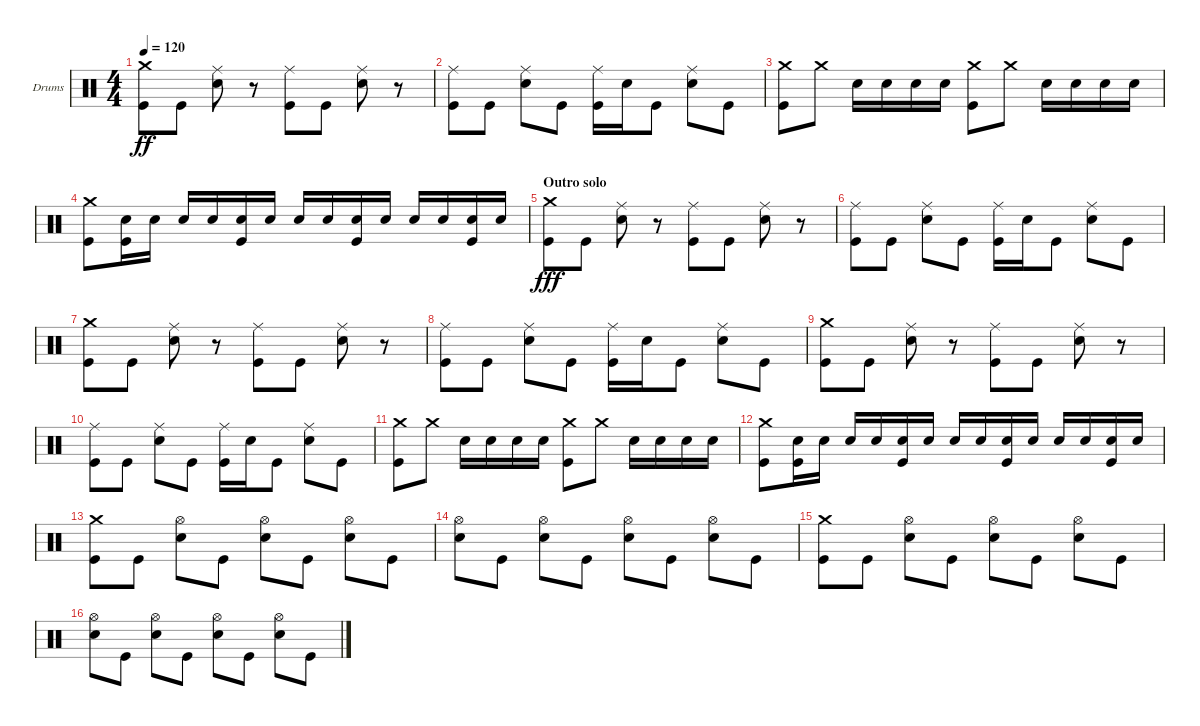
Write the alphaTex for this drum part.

\bracketExtendMode groupsimilarinstruments
\firstSystemTrackNameOrientation horizontal
\otherSystemsTrackNameOrientation horizontal
\track ("Drums" "Drums") {instrument percussion}
\staff {score}
\articulation defaults
\ts (4 4)
\tempo 120
\clef neutral
\ks c
("Kick (hit)" "Crash medium (hit)").8{dy ff} "Kick (hit)".8 ("Snare (hit) 2" "Ride (middle)").8 r.8 ("Kick (hit)" "Ride (middle)").8 "Kick (hit)".8 ("Snare (hit) 2" "Ride (middle)").8 r.8 |
("Kick (hit)" "Ride (middle)").8 "Kick (hit)".8 ("Snare (hit) 2" "Ride (middle)").8 "Kick (hit)".8 ("Kick (hit)" "Ride (middle)").16 "Snare (hit) 2".16 "Kick (hit)".8 ("Snare (hit) 2" "Ride (middle)").8 "Kick (hit)".8 |
("Kick (hit)" "Crash medium (hit)").8 "Crash medium (hit)".8 "Snare (hit) 2".16 "Snare (hit) 2".16 "Snare (hit) 2".16 "Snare (hit) 2".16 ("Kick (hit)" "Crash medium (hit)").8 "Crash medium (hit)".8 "Snare (hit) 2".16 "Snare (hit) 2".16 "Snare (hit) 2".16 "Snare (hit) 2".16 |
("Kick (hit)" "Crash medium (hit)").8 ("Kick (hit)" "Snare (hit) 2").16 "Snare (hit) 2".16 "Snare (hit) 2".16 "Snare (hit) 2".16 ("Kick (hit)" "Snare (hit) 2").16 "Snare (hit) 2".16 "Snare (hit) 2".16 "Snare (hit) 2".16 ("Kick (hit)" "Snare (hit) 2").16 "Snare (hit) 2".16 "Snare (hit) 2".16 "Snare (hit) 2".16 ("Kick (hit)" "Snare (hit) 2").16 "Snare (hit) 2".16 |
\section ("" "Outro solo")
("Kick (hit)" "Crash medium (hit)").8{dy fff} "Kick (hit)".8 ("Snare (hit) 2" "Ride (middle)").8 r.8 ("Kick (hit)" "Ride (middle)").8 "Kick (hit)".8 ("Snare (hit) 2" "Ride (middle)").8 r.8 |
("Kick (hit)" "Ride (middle)").8 "Kick (hit)".8 ("Snare (hit) 2" "Ride (middle)").8 "Kick (hit)".8 ("Kick (hit)" "Ride (middle)").16 "Snare (hit) 2".16 "Kick (hit)".8 ("Snare (hit) 2" "Ride (middle)").8 "Kick (hit)".8 |
("Kick (hit)" "Crash medium (hit)").8 "Kick (hit)".8 ("Snare (hit) 2" "Ride (middle)").8 r.8 ("Kick (hit)" "Ride (middle)").8 "Kick (hit)".8 ("Snare (hit) 2" "Ride (middle)").8 r.8 |
("Kick (hit)" "Ride (middle)").8 "Kick (hit)".8 ("Snare (hit) 2" "Ride (middle)").8 "Kick (hit)".8 ("Kick (hit)" "Ride (middle)").16 "Snare (hit) 2".16 "Kick (hit)".8 ("Snare (hit) 2" "Ride (middle)").8 "Kick (hit)".8 |
("Kick (hit)" "Crash medium (hit)").8 "Kick (hit)".8 ("Snare (hit) 2" "Ride (middle)").8 r.8 ("Kick (hit)" "Ride (middle)").8 "Kick (hit)".8 ("Snare (hit) 2" "Ride (middle)").8 r.8 |
("Kick (hit)" "Ride (middle)").8 "Kick (hit)".8 ("Snare (hit) 2" "Ride (middle)").8 "Kick (hit)".8 ("Kick (hit)" "Ride (middle)").16 "Snare (hit) 2".16 "Kick (hit)".8 ("Snare (hit) 2" "Ride (middle)").8 "Kick (hit)".8 |
("Kick (hit)" "Crash medium (hit)").8 "Crash medium (hit)".8 "Snare (hit) 2".16 "Snare (hit) 2".16 "Snare (hit) 2".16 "Snare (hit) 2".16 ("Kick (hit)" "Crash medium (hit)").8 "Crash medium (hit)".8 "Snare (hit) 2".16 "Snare (hit) 2".16 "Snare (hit) 2".16 "Snare (hit) 2".16 |
("Kick (hit)" "Crash medium (hit)").8 ("Kick (hit)" "Snare (hit) 2").16 "Snare (hit) 2".16 "Snare (hit) 2".16 "Snare (hit) 2".16 ("Kick (hit)" "Snare (hit) 2").16 "Snare (hit) 2".16 "Snare (hit) 2".16 "Snare (hit) 2".16 ("Kick (hit)" "Snare (hit) 2").16 "Snare (hit) 2".16 "Snare (hit) 2".16 "Snare (hit) 2".16 ("Kick (hit)" "Snare (hit) 2").16 "Snare (hit) 2".16 |
("Kick (hit)" "Crash medium (hit)").8 "Kick (hit)".8 ("Snare (hit) 2" "Hi-Hat (open)").8 "Kick (hit)".8 ("Snare (hit) 2" "Hi-Hat (open)").8 "Kick (hit)".8 ("Snare (hit) 2" "Hi-Hat (open)").8 "Kick (hit)".8 |
("Snare (hit) 2" "Hi-Hat (open)").8 "Kick (hit)".8 ("Snare (hit) 2" "Hi-Hat (open)").8 "Kick (hit)".8 ("Snare (hit) 2" "Hi-Hat (open)").8 "Kick (hit)".8 ("Snare (hit) 2" "Hi-Hat (open)").8 "Kick (hit)".8 |
("Kick (hit)" "Crash medium (hit)").8 "Kick (hit)".8 ("Snare (hit) 2" "Hi-Hat (open)").8 "Kick (hit)".8 ("Snare (hit) 2" "Hi-Hat (open)").8 "Kick (hit)".8 ("Snare (hit) 2" "Hi-Hat (open)").8 "Kick (hit)".8 |
("Snare (hit) 2" "Hi-Hat (open)").8 "Kick (hit)".8 ("Snare (hit) 2" "Hi-Hat (open)").8 "Kick (hit)".8 ("Snare (hit) 2" "Hi-Hat (open)").8 "Kick (hit)".8 ("Snare (hit) 2" "Hi-Hat (open)").8 "Kick (hit)".8
